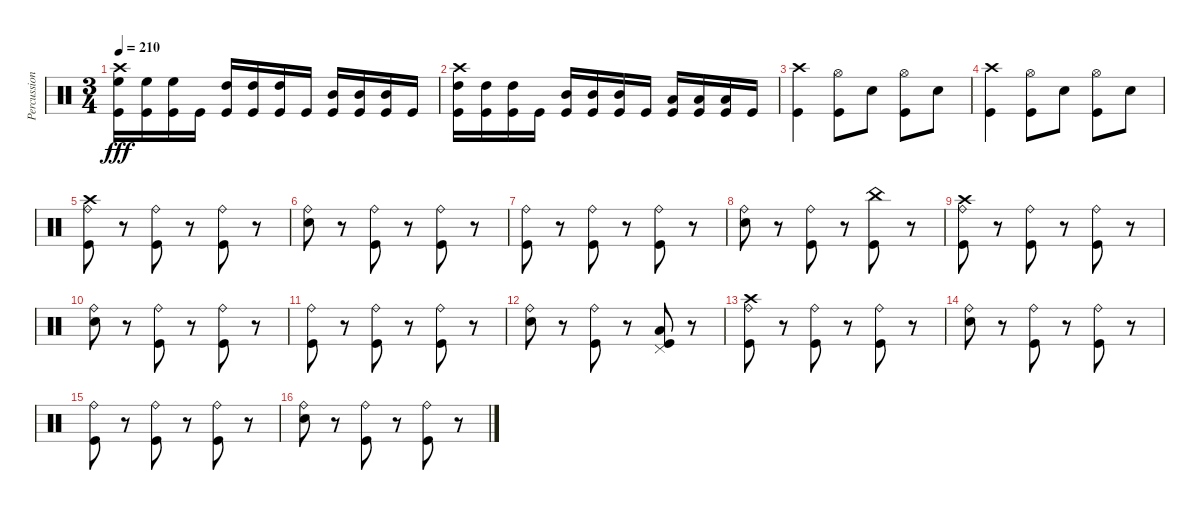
\track ("Percussion" "Percussion") {instrument percussion}
\staff {score}
\articulation defaults
\ts (3 4)
\tempo 210
\clef neutral
\ks c
("Crash high (hit)" "High Floor Tom (hit)" "Kick (hit)").16{dy fff} ("High Floor Tom (hit)" "Kick (hit)").16 ("High Floor Tom (hit)" "Kick (hit)").16 "Kick (hit)".16 ("High Tom (hit)" "Kick (hit)").16 ("High Tom (hit)" "Kick (hit)").16 ("High Tom (hit)" "Kick (hit)").16 "Kick (hit)".16 ("Mid Tom (hit)" "Kick (hit)").16 ("Mid Tom (hit)" "Kick (hit)").16 ("Mid Tom (hit)" "Kick (hit)").16 "Kick (hit)".16 |
("Crash high (hit)" "High Tom (hit)" "Kick (hit)").16 ("High Tom (hit)" "Kick (hit)").16 ("High Tom (hit)" "Kick (hit)").16 "Kick (hit)".16 ("Mid Tom (hit)" "Kick (hit)").16 ("Mid Tom (hit)" "Kick (hit)").16 ("Mid Tom (hit)" "Kick (hit)").16 "Kick (hit)".16 ("Low Tom (hit)" "Kick (hit)").16 ("Low Tom (hit)" "Kick (hit)").16 ("Low Tom (hit)" "Kick (hit)").16 "Kick (hit)".16 |
("Crash high (hit)" "Kick (hit)").4 ("Hi-Hat (open)" "Kick (hit)").8 "Electric Snare (hit)".8 ("Hi-Hat (open)" "Kick (hit)").8 "Electric Snare (hit)".8 |
("Crash high (hit)" "Kick (hit)").4 ("Hi-Hat (open)" "Kick (hit)").8 "Electric Snare (hit)".8 ("Hi-Hat (open)" "Kick (hit)").8 "Electric Snare (hit)".8 |
("Crash high (hit)" "Ride (bell)" "Kick (hit)").8 r.8 ("Ride (bell)" "Kick (hit)").8 r.8 ("Ride (bell)" "Kick (hit)").8 r.8 |
("Ride (bell)" "Electric Snare (hit)").8 r.8 ("Ride (bell)" "Kick (hit)").8 r.8 ("Ride (bell)" "Kick (hit)").8 r.8 |
("Ride (bell)" "Kick (hit)").8 r.8 ("Ride (bell)" "Kick (hit)").8 r.8 ("Ride (bell)" "Kick (hit)").8 r.8 |
("Ride (bell)" "Electric Snare (hit)").8 r.8 ("Ride (bell)" "Kick (hit)").8 r.8 ("China (hit)" "Kick (hit)").8 r.8 |
("Crash high (hit)" "Ride (bell)" "Kick (hit)").8 r.8 ("Ride (bell)" "Kick (hit)").8 r.8 ("Ride (bell)" "Kick (hit)").8 r.8 |
("Ride (bell)" "Electric Snare (hit)").8 r.8 ("Ride (bell)" "Kick (hit)").8 r.8 ("Ride (bell)" "Kick (hit)").8 r.8 |
("Ride (bell)" "Kick (hit)").8 r.8 ("Ride (bell)" "Kick (hit)").8 r.8 ("Ride (bell)" "Kick (hit)").8 r.8 |
("Ride (bell)" "Electric Snare (hit)").8 r.8 ("Ride (bell)" "Kick (hit)").8 r.8 ("Pedal Hi-Hat (hit)" "Low Floor Tom (hit)" "Kick (hit)").8 r.8 |
("Crash high (hit)" "Ride (bell)" "Kick (hit)").8 r.8 ("Ride (bell)" "Kick (hit)").8 r.8 ("Ride (bell)" "Kick (hit)").8 r.8 |
("Ride (bell)" "Electric Snare (hit)").8 r.8 ("Ride (bell)" "Kick (hit)").8 r.8 ("Ride (bell)" "Kick (hit)").8 r.8 |
("Ride (bell)" "Kick (hit)").8 r.8 ("Ride (bell)" "Kick (hit)").8 r.8 ("Ride (bell)" "Kick (hit)").8 r.8 |
("Ride (bell)" "Electric Snare (hit)").8 r.8 ("Ride (bell)" "Kick (hit)").8 r.8 ("Ride (bell)" "Kick (hit)").8 r.8
